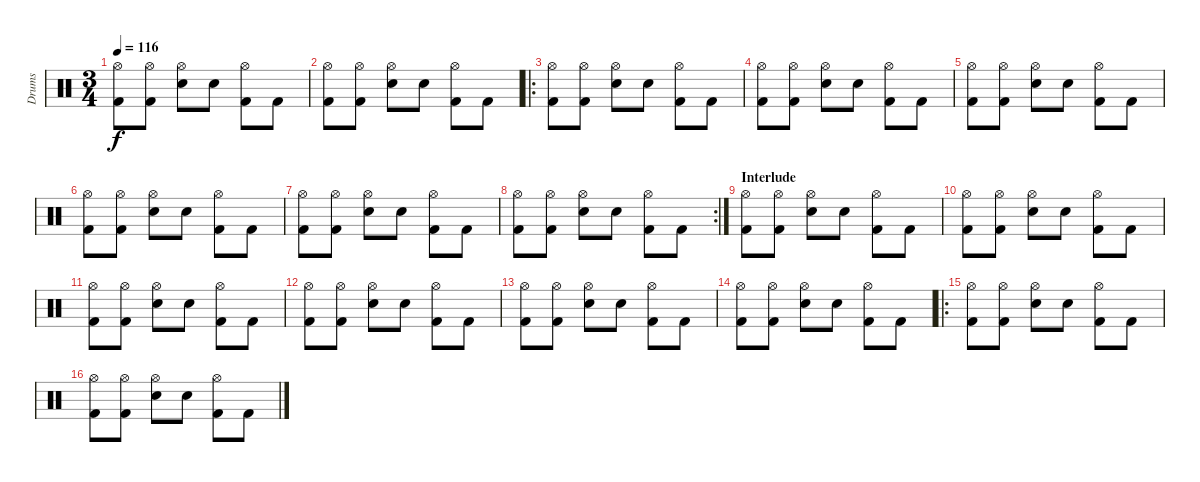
\track ("Drums" "Drums") {instrument percussion}
\staff {score}
\articulation defaults
\ts (3 4)
\tempo 116
\clef neutral
\ks c
("Hi-Hat (open)" "Kick (hit) 2").8{dy f} ("Hi-Hat (open)" "Kick (hit) 2").8 ("Hi-Hat (open)" "Snare (hit) 2").8 "Snare (hit) 2".8 ("Hi-Hat (open)" "Kick (hit) 2").8 "Kick (hit) 2".8 |
("Hi-Hat (open)" "Kick (hit) 2").8 ("Hi-Hat (open)" "Kick (hit) 2").8 ("Hi-Hat (open)" "Snare (hit) 2").8 "Snare (hit) 2".8 ("Hi-Hat (open)" "Kick (hit) 2").8 "Kick (hit) 2".8 |
\ro
("Hi-Hat (open)" "Kick (hit) 2").8 ("Hi-Hat (open)" "Kick (hit) 2").8 ("Hi-Hat (open)" "Snare (hit) 2").8 "Snare (hit) 2".8 ("Hi-Hat (open)" "Kick (hit) 2").8 "Kick (hit) 2".8 |
("Hi-Hat (open)" "Kick (hit) 2").8 ("Hi-Hat (open)" "Kick (hit) 2").8 ("Hi-Hat (open)" "Snare (hit) 2").8 "Snare (hit) 2".8 ("Hi-Hat (open)" "Kick (hit) 2").8 "Kick (hit) 2".8 |
("Hi-Hat (open)" "Kick (hit) 2").8 ("Hi-Hat (open)" "Kick (hit) 2").8 ("Hi-Hat (open)" "Snare (hit) 2").8 "Snare (hit) 2".8 ("Hi-Hat (open)" "Kick (hit) 2").8 "Kick (hit) 2".8 |
("Hi-Hat (open)" "Kick (hit) 2").8 ("Hi-Hat (open)" "Kick (hit) 2").8 ("Hi-Hat (open)" "Snare (hit) 2").8 "Snare (hit) 2".8 ("Hi-Hat (open)" "Kick (hit) 2").8 "Kick (hit) 2".8 |
("Hi-Hat (open)" "Kick (hit) 2").8 ("Hi-Hat (open)" "Kick (hit) 2").8 ("Hi-Hat (open)" "Snare (hit) 2").8 "Snare (hit) 2".8 ("Hi-Hat (open)" "Kick (hit) 2").8 "Kick (hit) 2".8 |
\rc 2
("Hi-Hat (open)" "Kick (hit) 2").8 ("Hi-Hat (open)" "Kick (hit) 2").8 ("Hi-Hat (open)" "Snare (hit) 2").8 "Snare (hit) 2".8 ("Hi-Hat (open)" "Kick (hit) 2").8 "Kick (hit) 2".8 |
\section ("" "Interlude")
("Hi-Hat (open)" "Kick (hit) 2").8 ("Hi-Hat (open)" "Kick (hit) 2").8 ("Hi-Hat (open)" "Snare (hit) 2").8 "Snare (hit) 2".8 ("Hi-Hat (open)" "Kick (hit) 2").8 "Kick (hit) 2".8 |
("Hi-Hat (open)" "Kick (hit) 2").8 ("Hi-Hat (open)" "Kick (hit) 2").8 ("Hi-Hat (open)" "Snare (hit) 2").8 "Snare (hit) 2".8 ("Hi-Hat (open)" "Kick (hit) 2").8 "Kick (hit) 2".8 |
("Hi-Hat (open)" "Kick (hit) 2").8 ("Hi-Hat (open)" "Kick (hit) 2").8 ("Hi-Hat (open)" "Snare (hit) 2").8 "Snare (hit) 2".8 ("Hi-Hat (open)" "Kick (hit) 2").8 "Kick (hit) 2".8 |
("Hi-Hat (open)" "Kick (hit) 2").8 ("Hi-Hat (open)" "Kick (hit) 2").8 ("Hi-Hat (open)" "Snare (hit) 2").8 "Snare (hit) 2".8 ("Hi-Hat (open)" "Kick (hit) 2").8 "Kick (hit) 2".8 |
("Hi-Hat (open)" "Kick (hit) 2").8 ("Hi-Hat (open)" "Kick (hit) 2").8 ("Hi-Hat (open)" "Snare (hit) 2").8 "Snare (hit) 2".8 ("Hi-Hat (open)" "Kick (hit) 2").8 "Kick (hit) 2".8 |
("Hi-Hat (open)" "Kick (hit) 2").8 ("Hi-Hat (open)" "Kick (hit) 2").8 ("Hi-Hat (open)" "Snare (hit) 2").8 "Snare (hit) 2".8 ("Hi-Hat (open)" "Kick (hit) 2").8 "Kick (hit) 2".8 |
\ro
("Hi-Hat (open)" "Kick (hit) 2").8 ("Hi-Hat (open)" "Kick (hit) 2").8 ("Hi-Hat (open)" "Snare (hit) 2").8 "Snare (hit) 2".8 ("Hi-Hat (open)" "Kick (hit) 2").8 "Kick (hit) 2".8 |
("Hi-Hat (open)" "Kick (hit) 2").8 ("Hi-Hat (open)" "Kick (hit) 2").8 ("Hi-Hat (open)" "Snare (hit) 2").8 "Snare (hit) 2".8 ("Hi-Hat (open)" "Kick (hit) 2").8 "Kick (hit) 2".8
